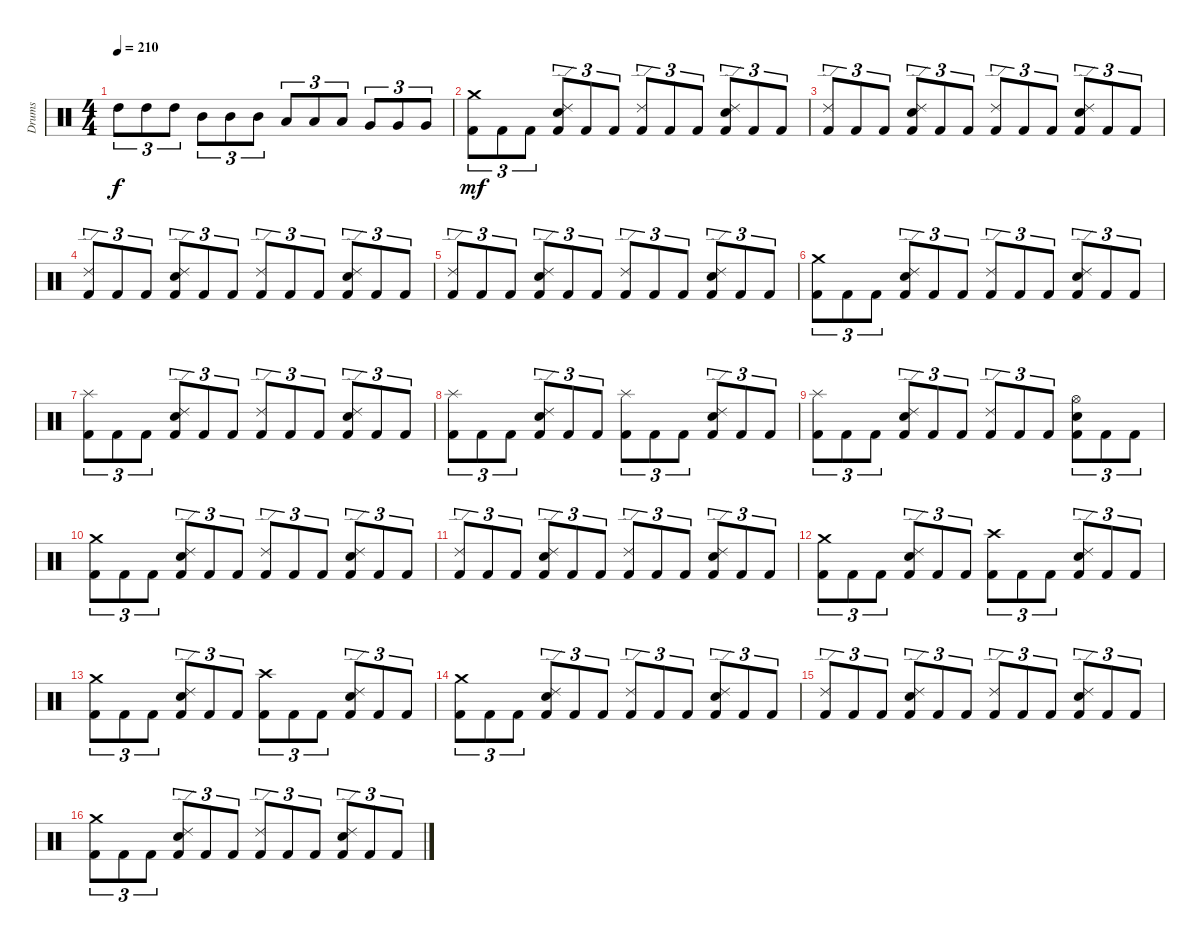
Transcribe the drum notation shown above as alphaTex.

\track ("Drums" "Drums") {instrument percussion}
\staff {score}
\articulation defaults
\ts (4 4)
\tempo 210
\clef neutral
\ks c "High Tom (hit)".8{tu (3 2) dy f} "High Tom (hit)".8{tu (3 2)} "High Tom (hit)".8{tu (3 2)} "Mid Tom (hit)".8{tu (3 2)} "Mid Tom (hit)".8{tu (3 2)} "Mid Tom (hit)".8{tu (3 2)} "Low Tom (hit)".8{tu (3 2)} "Low Tom (hit)".8{tu (3 2)} "Low Tom (hit)".8{tu (3 2)} "Very Low Tom (hit)".8{tu (3 2)} "Very Low Tom (hit)".8{tu (3 2)} "Very Low Tom (hit)".8{tu (3 2)}
|
("Crash medium (hit)" "Kick (hit) 2").8{tu (3 2) dy mf} "Kick (hit) 2".8{tu (3 2)} "Kick (hit) 2".8{tu (3 2)} ("Ride (edge) 2" "Electric Snare (hit)" "Kick (hit) 2").8{tu (3 2)} "Kick (hit) 2".8{tu (3 2)} "Kick (hit) 2".8{tu (3 2)} ("Ride (edge) 2" "Kick (hit) 2").8{tu (3 2)} "Kick (hit) 2".8{tu (3 2)} "Kick (hit) 2".8{tu (3 2)} ("Ride (edge) 2" "Electric Snare (hit)" "Kick (hit) 2").8{tu (3 2)} "Kick (hit) 2".8{tu (3 2)} "Kick (hit) 2".8{tu (3 2)} |
("Ride (edge) 2" "Kick (hit) 2").8{tu (3 2)} "Kick (hit) 2".8{tu (3 2)} "Kick (hit) 2".8{tu (3 2)} ("Ride (edge) 2" "Electric Snare (hit)" "Kick (hit) 2").8{tu (3 2)} "Kick (hit) 2".8{tu (3 2)} "Kick (hit) 2".8{tu (3 2)} ("Ride (edge) 2" "Kick (hit) 2").8{tu (3 2)} "Kick (hit) 2".8{tu (3 2)} "Kick (hit) 2".8{tu (3 2)} ("Ride (edge) 2" "Electric Snare (hit)" "Kick (hit) 2").8{tu (3 2)} "Kick (hit) 2".8{tu (3 2)} "Kick (hit) 2".8{tu (3 2)} |
("Ride (edge) 2" "Kick (hit) 2").8{tu (3 2)} "Kick (hit) 2".8{tu (3 2)} "Kick (hit) 2".8{tu (3 2)} ("Ride (edge) 2" "Electric Snare (hit)" "Kick (hit) 2").8{tu (3 2)} "Kick (hit) 2".8{tu (3 2)} "Kick (hit) 2".8{tu (3 2)} ("Ride (edge) 2" "Kick (hit) 2").8{tu (3 2)} "Kick (hit) 2".8{tu (3 2)} "Kick (hit) 2".8{tu (3 2)} ("Ride (edge) 2" "Electric Snare (hit)" "Kick (hit) 2").8{tu (3 2)} "Kick (hit) 2".8{tu (3 2)} "Kick (hit) 2".8{tu (3 2)} |
("Ride (edge) 2" "Kick (hit) 2").8{tu (3 2)} "Kick (hit) 2".8{tu (3 2)} "Kick (hit) 2".8{tu (3 2)} ("Ride (edge) 2" "Electric Snare (hit)" "Kick (hit) 2").8{tu (3 2)} "Kick (hit) 2".8{tu (3 2)} "Kick (hit) 2".8{tu (3 2)} ("Ride (edge) 2" "Kick (hit) 2").8{tu (3 2)} "Kick (hit) 2".8{tu (3 2)} "Kick (hit) 2".8{tu (3 2)} ("Ride (edge) 2" "Electric Snare (hit)" "Kick (hit) 2").8{tu (3 2)} "Kick (hit) 2".8{tu (3 2)} "Kick (hit) 2".8{tu (3 2)} |
("Crash medium (hit)" "Kick (hit) 2").8{tu (3 2)} "Kick (hit) 2".8{tu (3 2)} "Kick (hit) 2".8{tu (3 2)} ("Ride (edge) 2" "Electric Snare (hit)" "Kick (hit) 2").8{tu (3 2)} "Kick (hit) 2".8{tu (3 2)} "Kick (hit) 2".8{tu (3 2)} ("Ride (edge) 2" "Kick (hit) 2").8{tu (3 2)} "Kick (hit) 2".8{tu (3 2)} "Kick (hit) 2".8{tu (3 2)} ("Ride (edge) 2" "Electric Snare (hit)" "Kick (hit) 2").8{tu (3 2)} "Kick (hit) 2".8{tu (3 2)} "Kick (hit) 2".8{tu (3 2)} |
("Splash (hit)" "Kick (hit) 2").8{tu (3 2)} "Kick (hit) 2".8{tu (3 2)} "Kick (hit) 2".8{tu (3 2)} ("Ride (edge) 2" "Electric Snare (hit)" "Kick (hit) 2").8{tu (3 2)} "Kick (hit) 2".8{tu (3 2)} "Kick (hit) 2".8{tu (3 2)} ("Ride (edge) 2" "Kick (hit) 2").8{tu (3 2)} "Kick (hit) 2".8{tu (3 2)} "Kick (hit) 2".8{tu (3 2)} ("Ride (edge) 2" "Electric Snare (hit)" "Kick (hit) 2").8{tu (3 2)} "Kick (hit) 2".8{tu (3 2)} "Kick (hit) 2".8{tu (3 2)} |
("Splash (hit)" "Kick (hit) 2").8{tu (3 2)} "Kick (hit) 2".8{tu (3 2)} "Kick (hit) 2".8{tu (3 2)} ("Ride (edge) 2" "Electric Snare (hit)" "Kick (hit) 2").8{tu (3 2)} "Kick (hit) 2".8{tu (3 2)} "Kick (hit) 2".8{tu (3 2)} ("Splash (hit)" "Kick (hit) 2").8{tu (3 2)} "Kick (hit) 2".8{tu (3 2)} "Kick (hit) 2".8{tu (3 2)} ("Ride (edge) 2" "Electric Snare (hit)" "Kick (hit) 2").8{tu (3 2)} "Kick (hit) 2".8{tu (3 2)} "Kick (hit) 2".8{tu (3 2)} |
("Splash (hit)" "Kick (hit) 2").8{tu (3 2)} "Kick (hit) 2".8{tu (3 2)} "Kick (hit) 2".8{tu (3 2)} ("Ride (edge) 2" "Electric Snare (hit)" "Kick (hit) 2").8{tu (3 2)} "Kick (hit) 2".8{tu (3 2)} "Kick (hit) 2".8{tu (3 2)} ("Ride (edge) 2" "Kick (hit) 2").8{tu (3 2)} "Kick (hit) 2".8{tu (3 2)} "Kick (hit) 2".8{tu (3 2)} ("Hi-Hat (open)" "Electric Snare (hit)" "Kick (hit) 2").8{tu (3 2)} "Kick (hit) 2".8{tu (3 2)} "Kick (hit) 2".8{tu (3 2)} |
("Crash medium (hit)" "Kick (hit) 2").8{tu (3 2)} "Kick (hit) 2".8{tu (3 2)} "Kick (hit) 2".8{tu (3 2)} ("Ride (edge) 2" "Electric Snare (hit)" "Kick (hit) 2").8{tu (3 2)} "Kick (hit) 2".8{tu (3 2)} "Kick (hit) 2".8{tu (3 2)} ("Ride (edge) 2" "Kick (hit) 2").8{tu (3 2)} "Kick (hit) 2".8{tu (3 2)} "Kick (hit) 2".8{tu (3 2)} ("Ride (edge) 2" "Electric Snare (hit)" "Kick (hit) 2").8{tu (3 2)} "Kick (hit) 2".8{tu (3 2)} "Kick (hit) 2".8{tu (3 2)} |
("Ride (edge) 2" "Kick (hit) 2").8{tu (3 2)} "Kick (hit) 2".8{tu (3 2)} "Kick (hit) 2".8{tu (3 2)} ("Ride (edge) 2" "Electric Snare (hit)" "Kick (hit) 2").8{tu (3 2)} "Kick (hit) 2".8{tu (3 2)} "Kick (hit) 2".8{tu (3 2)} ("Ride (edge) 2" "Kick (hit) 2").8{tu (3 2)} "Kick (hit) 2".8{tu (3 2)} "Kick (hit) 2".8{tu (3 2)} ("Ride (edge) 2" "Electric Snare (hit)" "Kick (hit) 2").8{tu (3 2)} "Kick (hit) 2".8{tu (3 2)} "Kick (hit) 2".8{tu (3 2)} |
("Crash medium (hit)" "Kick (hit) 2").8{tu (3 2)} "Kick (hit) 2".8{tu (3 2)} "Kick (hit) 2".8{tu (3 2)} ("Ride (edge) 2" "Electric Snare (hit)" "Kick (hit) 2").8{tu (3 2)} "Kick (hit) 2".8{tu (3 2)} "Kick (hit) 2".8{tu (3 2)} ("Crash high (hit)" "Kick (hit) 2").8{tu (3 2)} "Kick (hit) 2".8{tu (3 2)} "Kick (hit) 2".8{tu (3 2)} ("Ride (edge) 2" "Electric Snare (hit)" "Kick (hit) 2").8{tu (3 2)} "Kick (hit) 2".8{tu (3 2)} "Kick (hit) 2".8{tu (3 2)} |
("Crash medium (hit)" "Kick (hit) 2").8{tu (3 2)} "Kick (hit) 2".8{tu (3 2)} "Kick (hit) 2".8{tu (3 2)} ("Ride (edge) 2" "Electric Snare (hit)" "Kick (hit) 2").8{tu (3 2)} "Kick (hit) 2".8{tu (3 2)} "Kick (hit) 2".8{tu (3 2)} ("Crash high (hit)" "Kick (hit) 2").8{tu (3 2)} "Kick (hit) 2".8{tu (3 2)} "Kick (hit) 2".8{tu (3 2)} ("Ride (edge) 2" "Electric Snare (hit)" "Kick (hit) 2").8{tu (3 2)} "Kick (hit) 2".8{tu (3 2)} "Kick (hit) 2".8{tu (3 2)} |
("Crash medium (hit)" "Kick (hit) 2").8{tu (3 2)} "Kick (hit) 2".8{tu (3 2)} "Kick (hit) 2".8{tu (3 2)} ("Ride (edge) 2" "Electric Snare (hit)" "Kick (hit) 2").8{tu (3 2)} "Kick (hit) 2".8{tu (3 2)} "Kick (hit) 2".8{tu (3 2)} ("Ride (edge) 2" "Kick (hit) 2").8{tu (3 2)} "Kick (hit) 2".8{tu (3 2)} "Kick (hit) 2".8{tu (3 2)} ("Ride (edge) 2" "Electric Snare (hit)" "Kick (hit) 2").8{tu (3 2)} "Kick (hit) 2".8{tu (3 2)} "Kick (hit) 2".8{tu (3 2)} |
("Ride (edge) 2" "Kick (hit) 2").8{tu (3 2)} "Kick (hit) 2".8{tu (3 2)} "Kick (hit) 2".8{tu (3 2)} ("Ride (edge) 2" "Electric Snare (hit)" "Kick (hit) 2").8{tu (3 2)} "Kick (hit) 2".8{tu (3 2)} "Kick (hit) 2".8{tu (3 2)} ("Ride (edge) 2" "Kick (hit) 2").8{tu (3 2)} "Kick (hit) 2".8{tu (3 2)} "Kick (hit) 2".8{tu (3 2)} ("Ride (edge) 2" "Electric Snare (hit)" "Kick (hit) 2").8{tu (3 2)} "Kick (hit) 2".8{tu (3 2)} "Kick (hit) 2".8{tu (3 2)} |
("Crash medium (hit)" "Kick (hit) 2").8{tu (3 2)} "Kick (hit) 2".8{tu (3 2)} "Kick (hit) 2".8{tu (3 2)} ("Ride (edge) 2" "Electric Snare (hit)" "Kick (hit) 2").8{tu (3 2)} "Kick (hit) 2".8{tu (3 2)} "Kick (hit) 2".8{tu (3 2)} ("Ride (edge) 2" "Kick (hit) 2").8{tu (3 2)} "Kick (hit) 2".8{tu (3 2)} "Kick (hit) 2".8{tu (3 2)} ("Ride (edge) 2" "Electric Snare (hit)" "Kick (hit) 2").8{tu (3 2)} "Kick (hit) 2".8{tu (3 2)} "Kick (hit) 2".8{tu (3 2)}
